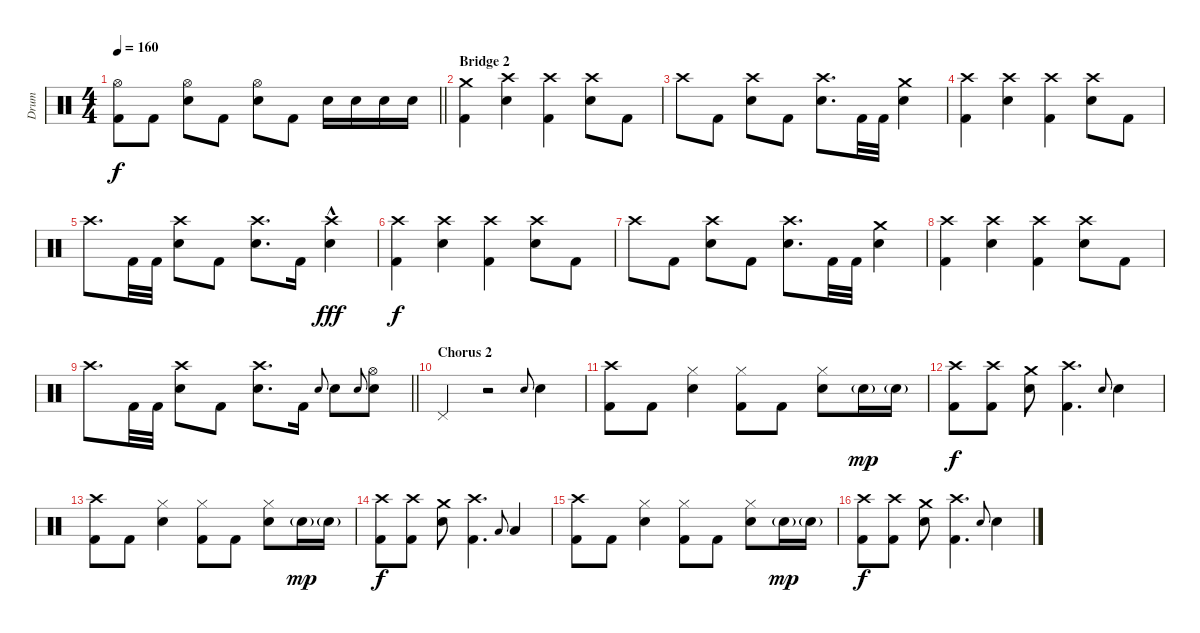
\track ("Drum" "Drum") {instrument percussion}
\staff {score}
\articulation defaults
\ts (4 4)
\tempo 160
\clef neutral
\barLineRight lightlight
\ks c
("Hi-Hat (open)" "Kick (hit) 2").8{dy f} "Kick (hit) 2".8 ("Hi-Hat (open)" "Electric Snare (hit)").8 "Kick (hit) 2".8 ("Hi-Hat (open)" "Electric Snare (hit)").8 "Kick (hit) 2".8 "Electric Snare (hit)".16 "Electric Snare (hit)".16 "Electric Snare (hit)".16 "Electric Snare (hit)".16 |
\section ("" "Bridge 2")
("Crash medium (hit)" "Kick (hit) 2").4 ("Crash high (hit)" "Electric Snare (hit)").4 ("Crash high (hit)" "Kick (hit) 2").4 ("Crash high (hit)" "Electric Snare (hit)").8 "Kick (hit) 2".8 |
"Crash high (hit)".8 "Kick (hit) 2".8 ("Crash high (hit)" "Electric Snare (hit)").8 "Kick (hit) 2".8 ("Crash high (hit)" "Electric Snare (hit)").8{d} "Kick (hit) 2".32 "Kick (hit) 2".32 ("Crash medium (hit)" "Electric Snare (hit)").4 |
("Crash high (hit)" "Kick (hit) 2").4 ("Crash high (hit)" "Electric Snare (hit)").4 ("Crash high (hit)" "Kick (hit) 2").4 ("Crash high (hit)" "Electric Snare (hit)").8 "Kick (hit) 2".8 |
"Crash high (hit)".8{d} "Kick (hit) 2".32 "Kick (hit) 2".32 ("Crash high (hit)" "Electric Snare (hit)").8 "Kick (hit) 2".8 ("Crash high (hit)" "Electric Snare (hit)").8{d} "Kick (hit) 2".16 ("Crash high (hit)"{hac} "Electric Snare (hit)").4{dy fff} |
("Crash high (hit)" "Kick (hit) 2").4{dy f} ("Crash high (hit)" "Electric Snare (hit)").4 ("Crash high (hit)" "Kick (hit) 2").4 ("Crash high (hit)" "Electric Snare (hit)").8 "Kick (hit) 2".8 |
"Crash high (hit)".8 "Kick (hit) 2".8 ("Crash high (hit)" "Electric Snare (hit)").8 "Kick (hit) 2".8 ("Crash high (hit)" "Electric Snare (hit)").8{d} "Kick (hit) 2".32 "Kick (hit) 2".32 ("Crash medium (hit)" "Electric Snare (hit)").4 |
("Crash high (hit)" "Kick (hit) 2").4 ("Crash high (hit)" "Electric Snare (hit)").4 ("Crash high (hit)" "Kick (hit) 2").4 ("Crash high (hit)" "Electric Snare (hit)").8 "Kick (hit) 2".8 |
\barLineRight lightlight "Crash high (hit)".8{d} "Kick (hit) 2".32 "Kick (hit) 2".32
("Crash high (hit)" "Electric Snare (hit)").8 "Kick (hit) 2".8 ("Crash high (hit)" "Electric Snare (hit)").8{d} "Kick (hit) 2".16 "Electric Snare (hit)".8{gr onbeat} "Electric Snare (hit)".8 "Electric Snare (hit)".8{gr onbeat} ("Hi-Hat (open)" "Electric Snare (hit)").8 |
\section ("" "Chorus 2")
"Pedal Hi-Hat (hit)".4 r.2 "Electric Snare (hit)".8{gr onbeat} "Electric Snare (hit)".4 |
("Crash high (hit)" "Kick (hit) 2").8 "Kick (hit) 2".8 ("Hi-Hat (closed)" "Electric Snare (hit)").4 ("Hi-Hat (closed)" "Kick (hit) 2").8 "Kick (hit) 2".8 ("Hi-Hat (closed)" "Electric Snare (hit)").8 "Electric Snare (hit)"{g}.16{dy mp} "Electric Snare (hit)"{g}.16 |
("Crash high (hit)" "Kick (hit) 2").8{dy f} ("Crash high (hit)" "Kick (hit) 2").8 ("Crash medium (hit)" "Electric Snare (hit)").8 ("Crash high (hit)" "Kick (hit) 2").4{d} "Electric Snare (hit)".8{gr onbeat} "Electric Snare (hit)".4 |
("Crash high (hit)" "Kick (hit) 2").8 "Kick (hit) 2".8 ("Hi-Hat (closed)" "Electric Snare (hit)").4 ("Hi-Hat (closed)" "Kick (hit) 2").8 "Kick (hit) 2".8 ("Hi-Hat (closed)" "Electric Snare (hit)").8 "Electric Snare (hit)"{g}.16{dy mp} "Electric Snare (hit)"{g}.16 |
("Crash high (hit)" "Kick (hit) 2").8{dy f} ("Crash high (hit)" "Kick (hit) 2").8 ("Crash medium (hit)" "Electric Snare (hit)").8 ("Crash high (hit)" "Kick (hit) 2").4{d} "Low Tom (hit)".8{gr onbeat} "Low Tom (hit)".4 |
("Crash high (hit)" "Kick (hit) 2").8 "Kick (hit) 2".8 ("Hi-Hat (closed)" "Electric Snare (hit)").4 ("Hi-Hat (closed)" "Kick (hit) 2").8 "Kick (hit) 2".8 ("Hi-Hat (closed)" "Electric Snare (hit)").8 "Electric Snare (hit)"{g}.16{dy mp} "Electric Snare (hit)"{g}.16 |
("Crash high (hit)" "Kick (hit) 2").8{dy f} ("Crash high (hit)" "Kick (hit) 2").8 ("Crash medium (hit)" "Electric Snare (hit)").8 ("Crash high (hit)" "Kick (hit) 2").4{d} "Electric Snare (hit)".8{gr onbeat} "Electric Snare (hit)".4
